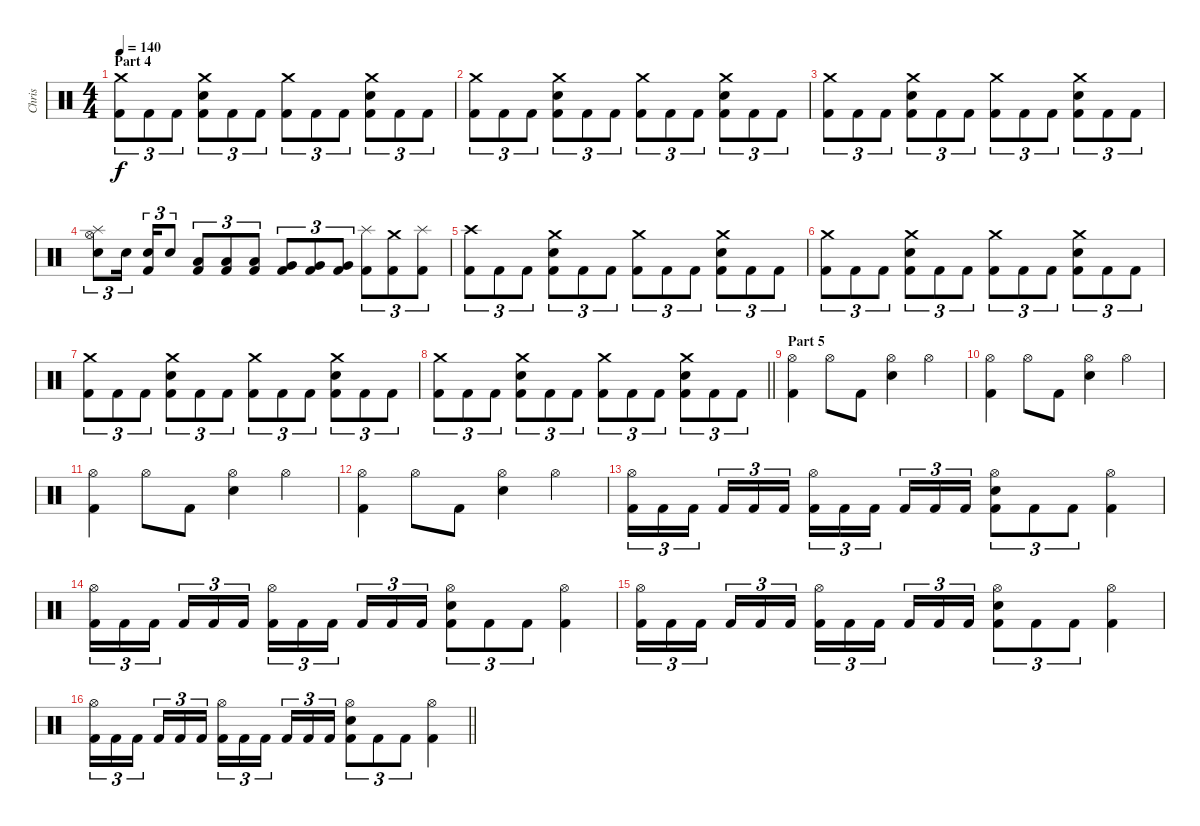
\track ("Chris" "Chris") {instrument percussion}
\staff {score}
\articulation defaults
\ts (4 4)
\section ("" "Part 4")
\tempo 140
\clef neutral
\ks c
("Crash medium (hit)" "Kick (hit) 2").8{tu (3 2) dy f} "Kick (hit) 2".8{tu (3 2)} "Kick (hit) 2".8{tu (3 2)} ("Crash medium (hit)" "Snare (hit) 2" "Kick (hit) 2").8{tu (3 2)} "Kick (hit) 2".8{tu (3 2)} "Kick (hit) 2".8{tu (3 2)} ("Crash medium (hit)" "Kick (hit) 2").8{tu (3 2)} "Kick (hit) 2".8{tu (3 2)} "Kick (hit) 2".8{tu (3 2)} ("Crash medium (hit)" "Snare (hit) 2" "Kick (hit) 2").8{tu (3 2)} "Kick (hit) 2".8{tu (3 2)} "Kick (hit) 2".8{tu (3 2)} |
("Crash medium (hit)" "Kick (hit) 2").8{tu (3 2)} "Kick (hit) 2".8{tu (3 2)} "Kick (hit) 2".8{tu (3 2)} ("Crash medium (hit)" "Snare (hit) 2" "Kick (hit) 2").8{tu (3 2)} "Kick (hit) 2".8{tu (3 2)} "Kick (hit) 2".8{tu (3 2)} ("Crash medium (hit)" "Kick (hit) 2").8{tu (3 2)} "Kick (hit) 2".8{tu (3 2)} "Kick (hit) 2".8{tu (3 2)} ("Crash medium (hit)" "Snare (hit) 2" "Kick (hit) 2").8{tu (3 2)} "Kick (hit) 2".8{tu (3 2)} "Kick (hit) 2".8{tu (3 2)} |
("Crash medium (hit)" "Kick (hit) 2").8{tu (3 2)} "Kick (hit) 2".8{tu (3 2)} "Kick (hit) 2".8{tu (3 2)} ("Crash medium (hit)" "Snare (hit) 2" "Kick (hit) 2").8{tu (3 2)} "Kick (hit) 2".8{tu (3 2)} "Kick (hit) 2".8{tu (3 2)} ("Crash medium (hit)" "Kick (hit) 2").8{tu (3 2)} "Kick (hit) 2".8{tu (3 2)} "Kick (hit) 2".8{tu (3 2)} ("Crash medium (hit)" "Snare (hit) 2" "Kick (hit) 2").8{tu (3 2)} "Kick (hit) 2".8{tu (3 2)} "Kick (hit) 2".8{tu (3 2)} |
("Splash (hit)" "Hi-Hat (open)" "Snare (hit) 2").8{tu (3 2)} "Snare (hit) 2".16{tu (3 2) beam splitsecondary} ("Snare (hit) 2" "Kick (hit) 2").16{tu (3 2)} "Snare (hit) 2".8{tu (3 2)} ("Low Tom (hit)" "Kick (hit) 2").8{tu (3 2)} ("Low Tom (hit)" "Kick (hit) 2").8{tu (3 2)} ("Low Tom (hit)" "Kick (hit) 2").8{tu (3 2)} ("Very Low Tom (hit)" "Kick (hit) 2").8{tu (3 2)} ("Very Low Tom (hit)" "Kick (hit) 2").8{tu (3 2)} ("Very Low Tom (hit)" "Kick (hit) 2").8{tu (3 2)} ("Splash (hit)" "Kick (hit) 2").8{tu (3 2)} ("Crash medium (hit)" "Kick (hit) 2").8{tu (3 2)} ("Splash (hit)" "Kick (hit) 2").8{tu (3 2)} |
("Crash high (hit)" "Kick (hit) 2").8{tu (3 2)} "Kick (hit) 2".8{tu (3 2)} "Kick (hit) 2".8{tu (3 2)} ("Crash medium (hit)" "Snare (hit) 2" "Kick (hit) 2").8{tu (3 2)} "Kick (hit) 2".8{tu (3 2)} "Kick (hit) 2".8{tu (3 2)} ("Crash medium (hit)" "Kick (hit) 2").8{tu (3 2)} "Kick (hit) 2".8{tu (3 2)} "Kick (hit) 2".8{tu (3 2)} ("Crash medium (hit)" "Snare (hit) 2" "Kick (hit) 2").8{tu (3 2)} "Kick (hit) 2".8{tu (3 2)} "Kick (hit) 2".8{tu (3 2)} |
("Crash medium (hit)" "Kick (hit) 2").8{tu (3 2)} "Kick (hit) 2".8{tu (3 2)} "Kick (hit) 2".8{tu (3 2)} ("Crash medium (hit)" "Snare (hit) 2" "Kick (hit) 2").8{tu (3 2)} "Kick (hit) 2".8{tu (3 2)} "Kick (hit) 2".8{tu (3 2)} ("Crash medium (hit)" "Kick (hit) 2").8{tu (3 2)} "Kick (hit) 2".8{tu (3 2)} "Kick (hit) 2".8{tu (3 2)} ("Crash medium (hit)" "Snare (hit) 2" "Kick (hit) 2").8{tu (3 2)} "Kick (hit) 2".8{tu (3 2)} "Kick (hit) 2".8{tu (3 2)} |
("Crash medium (hit)" "Kick (hit) 2").8{tu (3 2)} "Kick (hit) 2".8{tu (3 2)} "Kick (hit) 2".8{tu (3 2)} ("Crash medium (hit)" "Snare (hit) 2" "Kick (hit) 2").8{tu (3 2)} "Kick (hit) 2".8{tu (3 2)} "Kick (hit) 2".8{tu (3 2)} ("Crash medium (hit)" "Kick (hit) 2").8{tu (3 2)} "Kick (hit) 2".8{tu (3 2)} "Kick (hit) 2".8{tu (3 2)} ("Crash medium (hit)" "Snare (hit) 2" "Kick (hit) 2").8{tu (3 2)} "Kick (hit) 2".8{tu (3 2)} "Kick (hit) 2".8{tu (3 2)} |
\barLineRight lightlight
("Crash medium (hit)" "Kick (hit) 2").8{tu (3 2)} "Kick (hit) 2".8{tu (3 2)} "Kick (hit) 2".8{tu (3 2)} ("Crash medium (hit)" "Snare (hit) 2" "Kick (hit) 2").8{tu (3 2)} "Kick (hit) 2".8{tu (3 2)} "Kick (hit) 2".8{tu (3 2)} ("Crash medium (hit)" "Kick (hit) 2").8{tu (3 2)} "Kick (hit) 2".8{tu (3 2)} "Kick (hit) 2".8{tu (3 2)} ("Crash medium (hit)" "Snare (hit) 2" "Kick (hit) 2").8{tu (3 2)} "Kick (hit) 2".8{tu (3 2)} "Kick (hit) 2".8{tu (3 2)} |
\section ("" "Part 5")
("Hi-Hat (open)" "Kick (hit) 2").4 "Hi-Hat (open)".8 "Kick (hit) 2".8 ("Snare (hit) 2" "Hi-Hat (open)").4 "Hi-Hat (open)".4 |
("Hi-Hat (open)" "Kick (hit) 2").4 "Hi-Hat (open)".8 "Kick (hit) 2".8 ("Snare (hit) 2" "Hi-Hat (open)").4 "Hi-Hat (open)".4 |
("Hi-Hat (open)" "Kick (hit) 2").4 "Hi-Hat (open)".8 "Kick (hit) 2".8 ("Snare (hit) 2" "Hi-Hat (open)").4 "Hi-Hat (open)".4 |
("Hi-Hat (open)" "Kick (hit) 2").4 "Hi-Hat (open)".8 "Kick (hit) 2".8 ("Snare (hit) 2" "Hi-Hat (open)").4 "Hi-Hat (open)".4 |
("Hi-Hat (open)" "Kick (hit) 2").16{tu (3 2)} "Kick (hit) 2".16{tu (3 2)} "Kick (hit) 2".16{tu (3 2) beam splitsecondary} "Kick (hit) 2".16{tu (3 2)} "Kick (hit) 2".16{tu (3 2)} "Kick (hit) 2".16{tu (3 2)} ("Hi-Hat (open)" "Kick (hit) 2").16{tu (3 2)} "Kick (hit) 2".16{tu (3 2)} "Kick (hit) 2".16{tu (3 2) beam splitsecondary} "Kick (hit) 2".16{tu (3 2)} "Kick (hit) 2".16{tu (3 2)} "Kick (hit) 2".16{tu (3 2)} ("Snare (hit) 2" "Hi-Hat (open)" "Kick (hit) 2").8{tu (3 2)} "Kick (hit) 2".8{tu (3 2)} "Kick (hit) 2".8{tu (3 2)} ("Hi-Hat (open)" "Kick (hit) 2").4 |
("Hi-Hat (open)" "Kick (hit) 2").16{tu (3 2)} "Kick (hit) 2".16{tu (3 2)} "Kick (hit) 2".16{tu (3 2) beam splitsecondary} "Kick (hit) 2".16{tu (3 2)} "Kick (hit) 2".16{tu (3 2)} "Kick (hit) 2".16{tu (3 2)} ("Hi-Hat (open)" "Kick (hit) 2").16{tu (3 2)} "Kick (hit) 2".16{tu (3 2)} "Kick (hit) 2".16{tu (3 2) beam splitsecondary} "Kick (hit) 2".16{tu (3 2)} "Kick (hit) 2".16{tu (3 2)} "Kick (hit) 2".16{tu (3 2)} ("Snare (hit) 2" "Hi-Hat (open)" "Kick (hit) 2").8{tu (3 2)} "Kick (hit) 2".8{tu (3 2)} "Kick (hit) 2".8{tu (3 2)} ("Hi-Hat (open)" "Kick (hit) 2").4 |
("Hi-Hat (open)" "Kick (hit) 2").16{tu (3 2)} "Kick (hit) 2".16{tu (3 2)} "Kick (hit) 2".16{tu (3 2) beam splitsecondary} "Kick (hit) 2".16{tu (3 2)} "Kick (hit) 2".16{tu (3 2)} "Kick (hit) 2".16{tu (3 2)} ("Hi-Hat (open)" "Kick (hit) 2").16{tu (3 2)} "Kick (hit) 2".16{tu (3 2)} "Kick (hit) 2".16{tu (3 2) beam splitsecondary} "Kick (hit) 2".16{tu (3 2)} "Kick (hit) 2".16{tu (3 2)} "Kick (hit) 2".16{tu (3 2)} ("Snare (hit) 2" "Hi-Hat (open)" "Kick (hit) 2").8{tu (3 2)} "Kick (hit) 2".8{tu (3 2)} "Kick (hit) 2".8{tu (3 2)} ("Hi-Hat (open)" "Kick (hit) 2").4 |
\barLineRight lightlight
("Hi-Hat (open)" "Kick (hit) 2").16{tu (3 2)} "Kick (hit) 2".16{tu (3 2)} "Kick (hit) 2".16{tu (3 2) beam splitsecondary} "Kick (hit) 2".16{tu (3 2)} "Kick (hit) 2".16{tu (3 2)} "Kick (hit) 2".16{tu (3 2)} ("Hi-Hat (open)" "Kick (hit) 2").16{tu (3 2)} "Kick (hit) 2".16{tu (3 2)} "Kick (hit) 2".16{tu (3 2) beam splitsecondary} "Kick (hit) 2".16{tu (3 2)} "Kick (hit) 2".16{tu (3 2)} "Kick (hit) 2".16{tu (3 2)} ("Snare (hit) 2" "Hi-Hat (open)" "Kick (hit) 2").8{tu (3 2)} "Kick (hit) 2".8{tu (3 2)} "Kick (hit) 2".8{tu (3 2)} ("Hi-Hat (open)" "Kick (hit) 2").4
